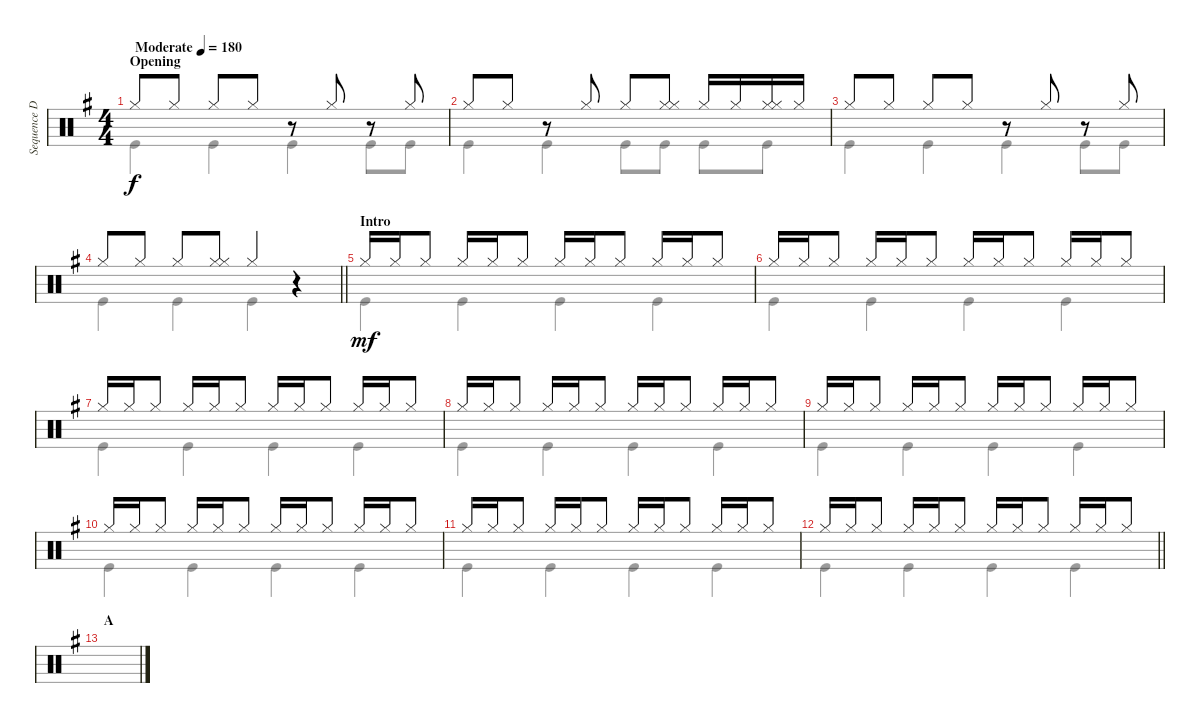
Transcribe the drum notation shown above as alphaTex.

\track ("Sequence Drums" "Sequence D") {instrument percussion}
\staff {score}
\articulation defaults
\voice
\ts (4 4)
\section ("" "Opening")
\tempo (180 "Moderate")
\clef neutral
\ks g "Hi-Hat (closed)".8{dy f} "Hi-Hat (closed)".8 "Hi-Hat (closed)".8 "Hi-Hat (closed)".8
r.8 "Hi-Hat (closed)".8 r.8 "Hi-Hat (closed)".8 |
"Hi-Hat (closed)".8 "Hi-Hat (closed)".8 r.8 "Hi-Hat (closed)".8 "Hi-Hat (closed)".8 ("Hi-Hat (closed)" "Hi-Hat (closed)").8 "Hi-Hat (closed)".16 "Hi-Hat (closed)".16 ("Hi-Hat (closed)" "Hi-Hat (closed)").16 "Hi-Hat (closed)".16 |
"Hi-Hat (closed)".8 "Hi-Hat (closed)".8 "Hi-Hat (closed)".8 "Hi-Hat (closed)".8 r.8 "Hi-Hat (closed)".8 r.8 "Hi-Hat (closed)".8 |
\barLineRight lightlight "Hi-Hat (closed)".8 "Hi-Hat (closed)".8 "Hi-Hat (closed)".8
("Hi-Hat (closed)" "Hi-Hat (closed)").8 "Hi-Hat (closed)".4 r.4 |
\section ("" "Intro")
"Hi-Hat (closed)".16{dy mf} "Hi-Hat (closed)".16 "Hi-Hat (closed)".8 "Hi-Hat (closed)".16 "Hi-Hat (closed)".16 "Hi-Hat (closed)".8 "Hi-Hat (closed)".16 "Hi-Hat (closed)".16 "Hi-Hat (closed)".8 "Hi-Hat (closed)".16 "Hi-Hat (closed)".16 "Hi-Hat (closed)".8 |
"Hi-Hat (closed)".16 "Hi-Hat (closed)".16 "Hi-Hat (closed)".8 "Hi-Hat (closed)".16 "Hi-Hat (closed)".16 "Hi-Hat (closed)".8 "Hi-Hat (closed)".16 "Hi-Hat (closed)".16 "Hi-Hat (closed)".8 "Hi-Hat (closed)".16 "Hi-Hat (closed)".16 "Hi-Hat (closed)".8 |
"Hi-Hat (closed)".16 "Hi-Hat (closed)".16 "Hi-Hat (closed)".8 "Hi-Hat (closed)".16 "Hi-Hat (closed)".16 "Hi-Hat (closed)".8 "Hi-Hat (closed)".16 "Hi-Hat (closed)".16 "Hi-Hat (closed)".8 "Hi-Hat (closed)".16 "Hi-Hat (closed)".16 "Hi-Hat (closed)".8 |
"Hi-Hat (closed)".16 "Hi-Hat (closed)".16 "Hi-Hat (closed)".8 "Hi-Hat (closed)".16 "Hi-Hat (closed)".16 "Hi-Hat (closed)".8 "Hi-Hat (closed)".16 "Hi-Hat (closed)".16 "Hi-Hat (closed)".8 "Hi-Hat (closed)".16 "Hi-Hat (closed)".16 "Hi-Hat (closed)".8 |
"Hi-Hat (closed)".16 "Hi-Hat (closed)".16 "Hi-Hat (closed)".8 "Hi-Hat (closed)".16 "Hi-Hat (closed)".16 "Hi-Hat (closed)".8 "Hi-Hat (closed)".16 "Hi-Hat (closed)".16 "Hi-Hat (closed)".8 "Hi-Hat (closed)".16 "Hi-Hat (closed)".16 "Hi-Hat (closed)".8 |
"Hi-Hat (closed)".16 "Hi-Hat (closed)".16 "Hi-Hat (closed)".8 "Hi-Hat (closed)".16 "Hi-Hat (closed)".16 "Hi-Hat (closed)".8 "Hi-Hat (closed)".16 "Hi-Hat (closed)".16 "Hi-Hat (closed)".8 "Hi-Hat (closed)".16 "Hi-Hat (closed)".16 "Hi-Hat (closed)".8 |
"Hi-Hat (closed)".16 "Hi-Hat (closed)".16 "Hi-Hat (closed)".8 "Hi-Hat (closed)".16 "Hi-Hat (closed)".16 "Hi-Hat (closed)".8 "Hi-Hat (closed)".16 "Hi-Hat (closed)".16 "Hi-Hat (closed)".8 "Hi-Hat (closed)".16 "Hi-Hat (closed)".16 "Hi-Hat (closed)".8 |
\barLineRight lightlight "Hi-Hat (closed)".16 "Hi-Hat (closed)".16 "Hi-Hat (closed)".8 "Hi-Hat (closed)".16 "Hi-Hat (closed)".16 "Hi-Hat (closed)".8 "Hi-Hat (closed)".16 "Hi-Hat (closed)".16 "Hi-Hat (closed)".8 "Hi-Hat (closed)".16 "Hi-Hat (closed)".16 "Hi-Hat (closed)".8
|
\section ("" "A")
|
|
|
\voice
\clef neutral
\ottava regular
\simile none
\ks g "Kick (hit)".4{dy f} "Kick (hit)".4 "Kick (hit)".4 "Kick (hit)".8 "Kick (hit)".8
|
"Kick (hit)".4 "Kick (hit)".4 "Kick (hit)".8 "Kick (hit)".8 "Kick (hit)".8 "Kick (hit)".8 |
"Kick (hit)".4 "Kick (hit)".4 "Kick (hit)".4 "Kick (hit)".8 "Kick (hit)".8 |
\barLineRight lightlight "Kick (hit)".4 "Kick (hit)".4 "Kick (hit)".4
r.4 |
"Kick (hit)".4 "Kick (hit)".4 "Kick (hit)".4 "Kick (hit)".4 |
"Kick (hit)".4 "Kick (hit)".4 "Kick (hit)".4 "Kick (hit)".4 |
"Kick (hit)".4 "Kick (hit)".4 "Kick (hit)".4 "Kick (hit)".4 |
"Kick (hit)".4 "Kick (hit)".4 "Kick (hit)".4 "Kick (hit)".4 |
"Kick (hit)".4 "Kick (hit)".4 "Kick (hit)".4 "Kick (hit)".4 |
"Kick (hit)".4 "Kick (hit)".4 "Kick (hit)".4 "Kick (hit)".4 |
"Kick (hit)".4 "Kick (hit)".4 "Kick (hit)".4 "Kick (hit)".4 |
\barLineRight lightlight "Kick (hit)".4 "Kick (hit)".4 "Kick (hit)".4 "Kick (hit)".4
|
|
|
|
